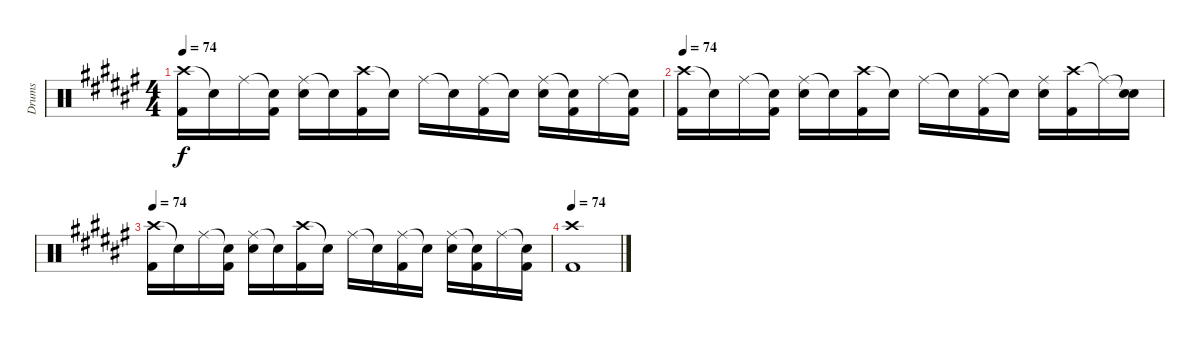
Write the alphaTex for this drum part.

\track ("Drums" "Drums") {instrument percussion}
\staff {score}
\articulation defaults
\ts (4 4)
\tempo 74
\clef neutral
\ks f#
("Crash high (hit)" "Kick (hit) 2").16{dy f} "Snare (hit)"{t}.16 "Ride (middle)".16 ("Snare (hit)"{t} "Kick (hit) 2").16 ("Ride (middle)" "Electric Snare (hit)").16 "Snare (hit)"{t}.16 ("Crash high (hit)" "Kick (hit) 2").16 "Snare (hit)"{t}.16 "Ride (middle)".16 "Snare (hit)"{t}.16 ("Ride (middle)" "Kick (hit) 2").16 "Snare (hit)"{t}.16 ("Ride (middle)" "Electric Snare (hit)").16 ("Snare (hit)"{t} "Kick (hit) 2").16 "Ride (middle)".16 ("Snare (hit)"{t} "Kick (hit) 2").16 |
\tempo 74
("Crash high (hit)" "Kick (hit) 2").16 "Snare (hit)"{t}.16 "Ride (middle)".16 ("Snare (hit)"{t} "Kick (hit) 2").16 ("Ride (middle)" "Electric Snare (hit)").16 "Snare (hit)"{t}.16 ("Crash high (hit)" "Kick (hit) 2").16 "Snare (hit)"{t}.16 "Ride (middle)".16 "Snare (hit)"{t}.16 ("Ride (middle)" "Kick (hit) 2").16 "Snare (hit)"{t}.16 ("Ride (middle)" "Electric Snare (hit)").16 ("Crash high (hit)" "Kick (hit) 2").16 "Ride (middle)"{t}.16 ("Snare (hit)"{t} "Electric Snare (hit)").16 |
\tempo 74
("Crash high (hit)" "Kick (hit) 2").16 "Snare (hit)"{t}.16 "Ride (middle)".16 ("Snare (hit)"{t} "Kick (hit) 2").16 ("Ride (middle)" "Electric Snare (hit)").16 "Snare (hit)"{t}.16 ("Crash high (hit)" "Kick (hit) 2").16 "Snare (hit)"{t}.16 "Ride (middle)".16 "Snare (hit)"{t}.16 ("Ride (middle)" "Kick (hit) 2").16 "Snare (hit)"{t}.16 ("Ride (middle)" "Electric Snare (hit)").16 ("Snare (hit)"{t} "Kick (hit) 2").16 "Ride (middle)".16 ("Snare (hit)"{t} "Kick (hit) 2").16 |
\tempo 74
("Crash high (hit)" "Kick (hit) 2").1
